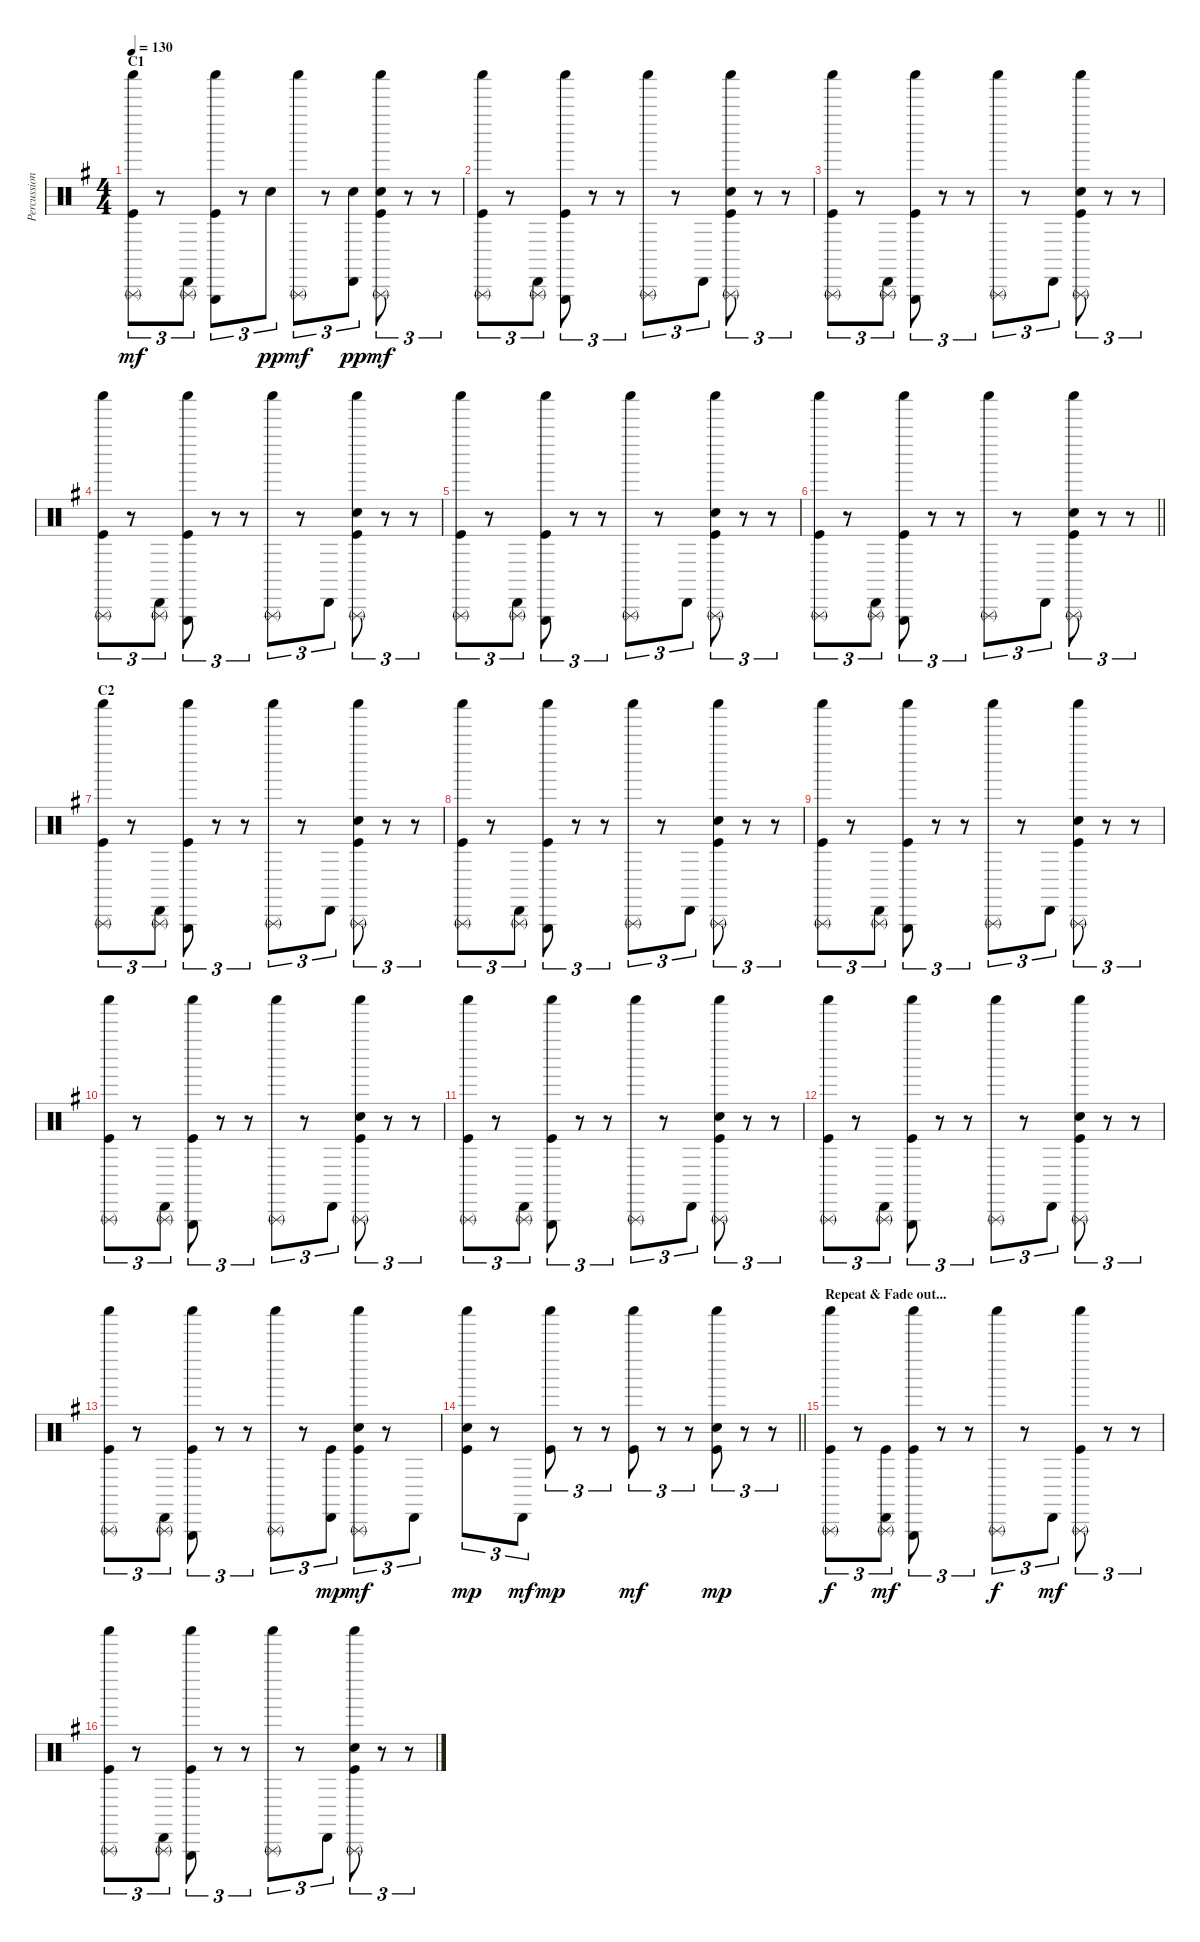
\track ("Percussion" "Percussion") {instrument percussion}
\staff {score}
\articulation defaults
\ts (4 4)
\section ("" "C1")
\tempo 130
\clef neutral
\ks g
("Shaker (hit)" "Kick (hit)" "Triangle (rnute)").8{tu (3 2) dy mf} r.8{tu (3 2)} ("Cabasa (hit)" "Triangle (rnute)").8{tu (3 2)} ("Shaker (hit)" "Kick (hit)" "Triangle (hit)").8{tu (3 2)} r.8{tu (3 2)} "Electric Snare (hit)".8{tu (3 2) dy pp} ("Shaker (hit)" "Triangle (rnute)").8{tu (3 2) dy mf} r.8{tu (3 2)} ("Cabasa (hit)" "Electric Snare (hit)").8{tu (3 2) dy pp} ("Shaker (hit)" "Kick (hit)" "Triangle (rnute)" "Snare (hit) 2").8{tu (3 2) dy mf} r.8{tu (3 2)} r.8{tu (3 2)} |
("Shaker (hit)" "Kick (hit)" "Triangle (rnute)").8{tu (3 2)} r.8{tu (3 2)} ("Cabasa (hit)" "Triangle (rnute)").8{tu (3 2)} ("Shaker (hit)" "Kick (hit)" "Triangle (hit)").8{tu (3 2)} r.8{tu (3 2)} r.8{tu (3 2)} ("Shaker (hit)" "Triangle (rnute)").8{tu (3 2)} r.8{tu (3 2)} "Cabasa (hit)".8{tu (3 2)} ("Shaker (hit)" "Kick (hit)" "Triangle (rnute)" "Snare (hit) 2").8{tu (3 2)} r.8{tu (3 2)} r.8{tu (3 2)} |
("Shaker (hit)" "Kick (hit)" "Triangle (rnute)").8{tu (3 2)} r.8{tu (3 2)} ("Cabasa (hit)" "Triangle (rnute)").8{tu (3 2)} ("Shaker (hit)" "Kick (hit)" "Triangle (hit)").8{tu (3 2)} r.8{tu (3 2)} r.8{tu (3 2)} ("Shaker (hit)" "Triangle (rnute)").8{tu (3 2)} r.8{tu (3 2)} "Cabasa (hit)".8{tu (3 2)} ("Shaker (hit)" "Kick (hit)" "Triangle (rnute)" "Snare (hit) 2").8{tu (3 2)} r.8{tu (3 2)} r.8{tu (3 2)} |
("Shaker (hit)" "Kick (hit)" "Triangle (rnute)").8{tu (3 2)} r.8{tu (3 2)} ("Cabasa (hit)" "Triangle (rnute)").8{tu (3 2)} ("Shaker (hit)" "Kick (hit)" "Triangle (hit)").8{tu (3 2)} r.8{tu (3 2)} r.8{tu (3 2)} ("Shaker (hit)" "Triangle (rnute)").8{tu (3 2)} r.8{tu (3 2)} "Cabasa (hit)".8{tu (3 2)} ("Shaker (hit)" "Kick (hit)" "Triangle (rnute)" "Snare (hit) 2").8{tu (3 2)} r.8{tu (3 2)} r.8{tu (3 2)} |
("Shaker (hit)" "Kick (hit)" "Triangle (rnute)").8{tu (3 2)} r.8{tu (3 2)} ("Cabasa (hit)" "Triangle (rnute)").8{tu (3 2)} ("Shaker (hit)" "Kick (hit)" "Triangle (hit)").8{tu (3 2)} r.8{tu (3 2)} r.8{tu (3 2)} ("Shaker (hit)" "Triangle (rnute)").8{tu (3 2)} r.8{tu (3 2)} "Cabasa (hit)".8{tu (3 2)} ("Shaker (hit)" "Kick (hit)" "Triangle (rnute)" "Snare (hit) 2").8{tu (3 2)} r.8{tu (3 2)} r.8{tu (3 2)} |
\barLineRight lightlight
("Shaker (hit)" "Kick (hit)" "Triangle (rnute)").8{tu (3 2)} r.8{tu (3 2)} ("Cabasa (hit)" "Triangle (rnute)").8{tu (3 2)} ("Shaker (hit)" "Kick (hit)" "Triangle (hit)").8{tu (3 2)} r.8{tu (3 2)} r.8{tu (3 2)} ("Shaker (hit)" "Triangle (rnute)").8{tu (3 2)} r.8{tu (3 2)} "Cabasa (hit)".8{tu (3 2)} ("Shaker (hit)" "Kick (hit)" "Triangle (rnute)" "Snare (hit) 2").8{tu (3 2)} r.8{tu (3 2)} r.8{tu (3 2)} |
\section ("" "C2")
("Shaker (hit)" "Kick (hit)" "Triangle (rnute)").8{tu (3 2)} r.8{tu (3 2)} ("Cabasa (hit)" "Triangle (rnute)").8{tu (3 2)} ("Shaker (hit)" "Kick (hit)" "Triangle (hit)").8{tu (3 2)} r.8{tu (3 2)} r.8{tu (3 2)} ("Shaker (hit)" "Triangle (rnute)").8{tu (3 2)} r.8{tu (3 2)} "Cabasa (hit)".8{tu (3 2)} ("Shaker (hit)" "Kick (hit)" "Triangle (rnute)" "Snare (hit) 2").8{tu (3 2)} r.8{tu (3 2)} r.8{tu (3 2)} |
("Shaker (hit)" "Kick (hit)" "Triangle (rnute)").8{tu (3 2)} r.8{tu (3 2)} ("Cabasa (hit)" "Triangle (rnute)").8{tu (3 2)} ("Shaker (hit)" "Kick (hit)" "Triangle (hit)").8{tu (3 2)} r.8{tu (3 2)} r.8{tu (3 2)} ("Shaker (hit)" "Triangle (rnute)").8{tu (3 2)} r.8{tu (3 2)} "Cabasa (hit)".8{tu (3 2)} ("Shaker (hit)" "Kick (hit)" "Triangle (rnute)" "Snare (hit) 2").8{tu (3 2)} r.8{tu (3 2)} r.8{tu (3 2)} |
("Shaker (hit)" "Kick (hit)" "Triangle (rnute)").8{tu (3 2)} r.8{tu (3 2)} ("Cabasa (hit)" "Triangle (rnute)").8{tu (3 2)} ("Shaker (hit)" "Kick (hit)" "Triangle (hit)").8{tu (3 2)} r.8{tu (3 2)} r.8{tu (3 2)} ("Shaker (hit)" "Triangle (rnute)").8{tu (3 2)} r.8{tu (3 2)} "Cabasa (hit)".8{tu (3 2)} ("Shaker (hit)" "Kick (hit)" "Triangle (rnute)" "Snare (hit) 2").8{tu (3 2)} r.8{tu (3 2)} r.8{tu (3 2)} |
("Shaker (hit)" "Kick (hit)" "Triangle (rnute)").8{tu (3 2)} r.8{tu (3 2)} ("Cabasa (hit)" "Triangle (rnute)").8{tu (3 2)} ("Shaker (hit)" "Kick (hit)" "Triangle (hit)").8{tu (3 2)} r.8{tu (3 2)} r.8{tu (3 2)} ("Shaker (hit)" "Triangle (rnute)").8{tu (3 2)} r.8{tu (3 2)} "Cabasa (hit)".8{tu (3 2)} ("Shaker (hit)" "Kick (hit)" "Triangle (rnute)" "Snare (hit) 2").8{tu (3 2)} r.8{tu (3 2)} r.8{tu (3 2)} |
("Shaker (hit)" "Kick (hit)" "Triangle (rnute)").8{tu (3 2)} r.8{tu (3 2)} ("Cabasa (hit)" "Triangle (rnute)").8{tu (3 2)} ("Shaker (hit)" "Kick (hit)" "Triangle (hit)").8{tu (3 2)} r.8{tu (3 2)} r.8{tu (3 2)} ("Shaker (hit)" "Triangle (rnute)").8{tu (3 2)} r.8{tu (3 2)} "Cabasa (hit)".8{tu (3 2)} ("Shaker (hit)" "Kick (hit)" "Triangle (rnute)" "Snare (hit) 2").8{tu (3 2)} r.8{tu (3 2)} r.8{tu (3 2)} |
("Shaker (hit)" "Kick (hit)" "Triangle (rnute)").8{tu (3 2)} r.8{tu (3 2)} ("Cabasa (hit)" "Triangle (rnute)").8{tu (3 2)} ("Shaker (hit)" "Kick (hit)" "Triangle (hit)").8{tu (3 2)} r.8{tu (3 2)} r.8{tu (3 2)} ("Shaker (hit)" "Triangle (rnute)").8{tu (3 2)} r.8{tu (3 2)} "Cabasa (hit)".8{tu (3 2)} ("Shaker (hit)" "Kick (hit)" "Triangle (rnute)" "Snare (hit) 2").8{tu (3 2)} r.8{tu (3 2)} r.8{tu (3 2)} |
("Shaker (hit)" "Kick (hit)" "Triangle (rnute)").8{tu (3 2)} r.8{tu (3 2)} ("Cabasa (hit)" "Triangle (rnute)").8{tu (3 2)} ("Shaker (hit)" "Kick (hit)" "Triangle (hit)").8{tu (3 2)} r.8{tu (3 2)} r.8{tu (3 2)} ("Shaker (hit)" "Triangle (rnute)").8{tu (3 2)} r.8{tu (3 2)} ("Cabasa (hit)" "Kick (hit)").8{tu (3 2) dy mp} ("Shaker (hit)" "Kick (hit)" "Triangle (rnute)" "Snare (hit) 2").8{tu (3 2) dy mf} r.8{tu (3 2)} "Cabasa (hit)".8{tu (3 2)} |
\barLineRight lightlight
("Shaker (hit)" "Kick (hit)" "Snare (hit) 2").8{tu (3 2) dy mp} r.8{tu (3 2)} "Cabasa (hit)".8{tu (3 2) dy mf} ("Shaker (hit)" "Kick (hit)").8{tu (3 2) dy mp} r.8{tu (3 2)} r.8{tu (3 2)} ("Shaker (hit)" "Kick (hit)").8{tu (3 2) dy mf} r.8{tu (3 2)} r.8{tu (3 2)} ("Shaker (hit)" "Kick (hit)" "Snare (hit) 2").8{tu (3 2) dy mp} r.8{tu (3 2)} r.8{tu (3 2)} |
\section ("" "Repeat & Fade out...")
("Shaker (hit)" "Kick (hit)" "Triangle (rnute)").8{tu (3 2) dy f} r.8{tu (3 2)} ("Cabasa (hit)" "Kick (hit)" "Triangle (rnute)").8{tu (3 2) dy mf} ("Shaker (hit)" "Kick (hit)" "Triangle (hit)").8{tu (3 2)} r.8{tu (3 2)} r.8{tu (3 2)} ("Shaker (hit)" "Triangle (rnute)").8{tu (3 2) dy f} r.8{tu (3 2)} "Cabasa (hit)".8{tu (3 2) dy mf} ("Shaker (hit)" "Kick (hit)" "Triangle (rnute)").8{tu (3 2)} r.8{tu (3 2)} r.8{tu (3 2)} |
("Shaker (hit)" "Kick (hit)" "Triangle (rnute)").8{tu (3 2)} r.8{tu (3 2)} ("Cabasa (hit)" "Triangle (rnute)").8{tu (3 2)} ("Shaker (hit)" "Kick (hit)" "Triangle (hit)").8{tu (3 2)} r.8{tu (3 2)} r.8{tu (3 2)} ("Shaker (hit)" "Triangle (rnute)").8{tu (3 2)} r.8{tu (3 2)} "Cabasa (hit)".8{tu (3 2)} ("Shaker (hit)" "Kick (hit)" "Triangle (rnute)" "Snare (hit) 2").8{tu (3 2)} r.8{tu (3 2)} r.8{tu (3 2)}
